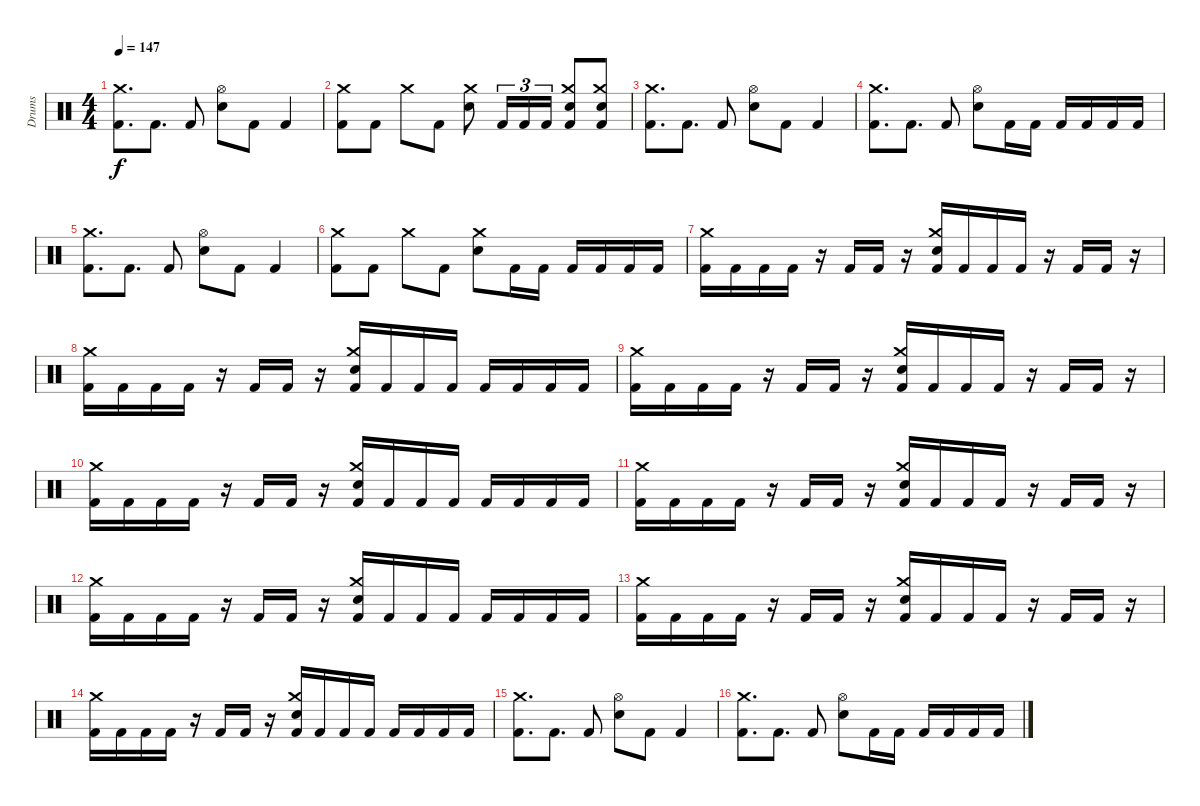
\track ("Drums" "Drums") {instrument percussion}
\staff {score}
\articulation defaults
\ts (4 4)
\tempo 147
\clef neutral
\ks c
("Kick (hit) 2" "Crash medium (hit)").8{d dy f} "Kick (hit) 2".8{d} "Kick (hit) 2".8 ("Snare (hit) 2" "Hi-Hat (open)").8 "Kick (hit) 2".8 "Kick (hit) 2".4 |
("Kick (hit) 2" "Crash medium (hit)").8 "Kick (hit) 2".8 "Crash medium (hit)".8 "Kick (hit) 2".8 ("Snare (hit) 2" "Crash medium (hit)").8 "Kick (hit) 2".16{tu (3 2)} "Kick (hit) 2".16{tu (3 2)} "Kick (hit) 2".16{tu (3 2)} ("Kick (hit) 2" "Snare (hit) 2" "Crash medium (hit)").8 ("Kick (hit) 2" "Snare (hit) 2" "Crash medium (hit)").8 |
("Kick (hit) 2" "Crash medium (hit)").8{d} "Kick (hit) 2".8{d} "Kick (hit) 2".8 ("Snare (hit) 2" "Hi-Hat (open)").8 "Kick (hit) 2".8 "Kick (hit) 2".4 |
("Kick (hit) 2" "Crash medium (hit)").8{d} "Kick (hit) 2".8{d} "Kick (hit) 2".8 ("Snare (hit) 2" "Hi-Hat (open)").8 "Kick (hit) 2".16 "Kick (hit) 2".16 "Kick (hit) 2".16 "Kick (hit) 2".16 "Kick (hit) 2".16 "Kick (hit) 2".16 |
("Kick (hit) 2" "Crash medium (hit)").8{d} "Kick (hit) 2".8{d} "Kick (hit) 2".8 ("Snare (hit) 2" "Hi-Hat (open)").8 "Kick (hit) 2".8 "Kick (hit) 2".4 |
("Kick (hit) 2" "Crash medium (hit)").8 "Kick (hit) 2".8 "Crash medium (hit)".8 "Kick (hit) 2".8 ("Snare (hit) 2" "Crash medium (hit)").8 "Kick (hit) 2".16 "Kick (hit) 2".16 "Kick (hit) 2".16 "Kick (hit) 2".16 "Kick (hit) 2".16 "Kick (hit) 2".16 |
("Kick (hit) 2" "Crash medium (hit)").16 "Kick (hit) 2".16 "Kick (hit) 2".16 "Kick (hit) 2".16 r.16 "Kick (hit) 2".16 "Kick (hit) 2".16 r.16 ("Kick (hit) 2" "Snare (hit) 2" "Crash medium (hit)").16 "Kick (hit) 2".16 "Kick (hit) 2".16 "Kick (hit) 2".16 r.16 "Kick (hit) 2".16 "Kick (hit) 2".16 r.16 |
("Kick (hit) 2" "Crash medium (hit)").16 "Kick (hit) 2".16 "Kick (hit) 2".16 "Kick (hit) 2".16 r.16 "Kick (hit) 2".16 "Kick (hit) 2".16 r.16 ("Kick (hit) 2" "Snare (hit) 2" "Crash medium (hit)").16 "Kick (hit) 2".16 "Kick (hit) 2".16 "Kick (hit) 2".16 "Kick (hit) 2".16 "Kick (hit) 2".16 "Kick (hit) 2".16 "Kick (hit) 2".16 |
("Kick (hit) 2" "Crash medium (hit)").16 "Kick (hit) 2".16 "Kick (hit) 2".16 "Kick (hit) 2".16 r.16 "Kick (hit) 2".16 "Kick (hit) 2".16 r.16 ("Kick (hit) 2" "Snare (hit) 2" "Crash medium (hit)").16 "Kick (hit) 2".16 "Kick (hit) 2".16 "Kick (hit) 2".16 r.16 "Kick (hit) 2".16 "Kick (hit) 2".16 r.16 |
("Kick (hit) 2" "Crash medium (hit)").16 "Kick (hit) 2".16 "Kick (hit) 2".16 "Kick (hit) 2".16 r.16 "Kick (hit) 2".16 "Kick (hit) 2".16 r.16 ("Kick (hit) 2" "Snare (hit) 2" "Crash medium (hit)").16 "Kick (hit) 2".16 "Kick (hit) 2".16 "Kick (hit) 2".16 "Kick (hit) 2".16 "Kick (hit) 2".16 "Kick (hit) 2".16 "Kick (hit) 2".16 |
("Kick (hit) 2" "Crash medium (hit)").16 "Kick (hit) 2".16 "Kick (hit) 2".16 "Kick (hit) 2".16 r.16 "Kick (hit) 2".16 "Kick (hit) 2".16 r.16 ("Kick (hit) 2" "Snare (hit) 2" "Crash medium (hit)").16 "Kick (hit) 2".16 "Kick (hit) 2".16 "Kick (hit) 2".16 r.16 "Kick (hit) 2".16 "Kick (hit) 2".16 r.16 |
("Kick (hit) 2" "Crash medium (hit)").16 "Kick (hit) 2".16 "Kick (hit) 2".16 "Kick (hit) 2".16 r.16 "Kick (hit) 2".16 "Kick (hit) 2".16 r.16 ("Kick (hit) 2" "Snare (hit) 2" "Crash medium (hit)").16 "Kick (hit) 2".16 "Kick (hit) 2".16 "Kick (hit) 2".16 "Kick (hit) 2".16 "Kick (hit) 2".16 "Kick (hit) 2".16 "Kick (hit) 2".16 |
("Kick (hit) 2" "Crash medium (hit)").16 "Kick (hit) 2".16 "Kick (hit) 2".16 "Kick (hit) 2".16 r.16 "Kick (hit) 2".16 "Kick (hit) 2".16 r.16 ("Kick (hit) 2" "Snare (hit) 2" "Crash medium (hit)").16 "Kick (hit) 2".16 "Kick (hit) 2".16 "Kick (hit) 2".16 r.16 "Kick (hit) 2".16 "Kick (hit) 2".16 r.16 |
("Kick (hit) 2" "Crash medium (hit)").16 "Kick (hit) 2".16 "Kick (hit) 2".16 "Kick (hit) 2".16 r.16 "Kick (hit) 2".16 "Kick (hit) 2".16 r.16 ("Kick (hit) 2" "Snare (hit) 2" "Crash medium (hit)").16 "Kick (hit) 2".16 "Kick (hit) 2".16 "Kick (hit) 2".16 "Kick (hit) 2".16 "Kick (hit) 2".16 "Kick (hit) 2".16 "Kick (hit) 2".16 |
("Kick (hit) 2" "Crash medium (hit)").8{d} "Kick (hit) 2".8{d} "Kick (hit) 2".8 ("Snare (hit) 2" "Hi-Hat (open)").8 "Kick (hit) 2".8 "Kick (hit) 2".4 |
("Kick (hit) 2" "Crash medium (hit)").8{d} "Kick (hit) 2".8{d} "Kick (hit) 2".8 ("Snare (hit) 2" "Hi-Hat (open)").8 "Kick (hit) 2".16 "Kick (hit) 2".16 "Kick (hit) 2".16 "Kick (hit) 2".16 "Kick (hit) 2".16 "Kick (hit) 2".16
